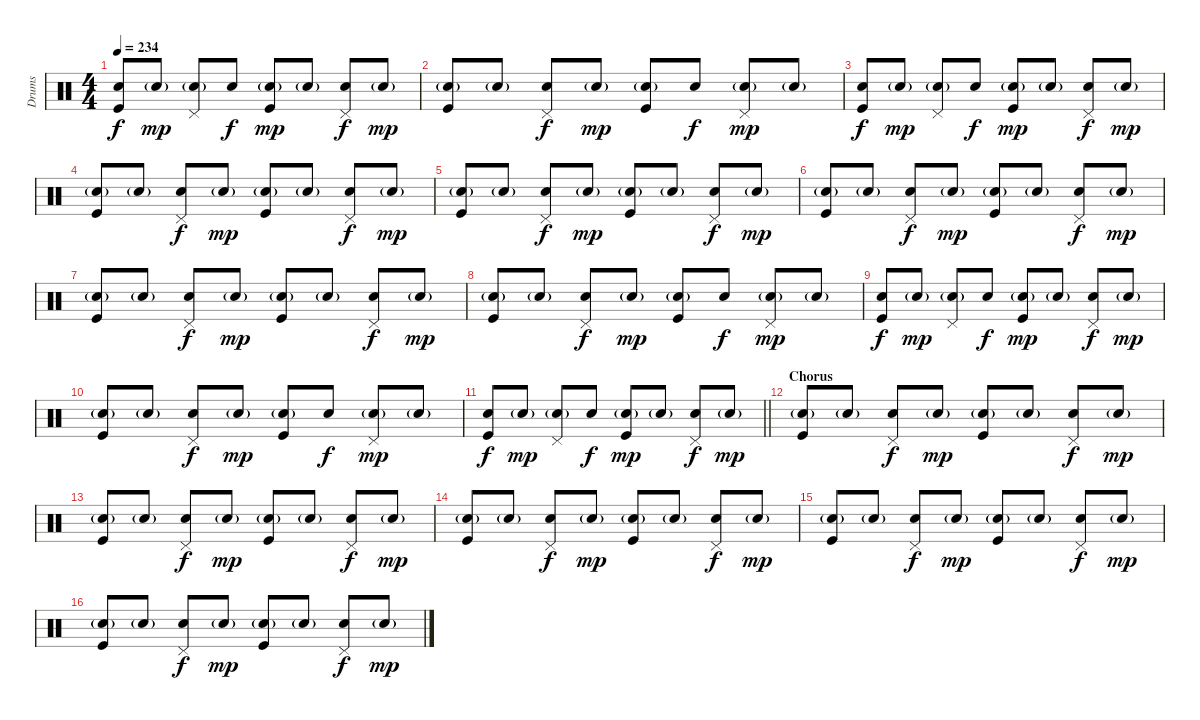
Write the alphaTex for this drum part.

\track ("Drums" "Drums") {instrument percussion}
\staff {score}
\articulation defaults
\ts (4 4)
\tempo 234
\clef neutral
\ks c
("Snare (hit) 2" "Kick (hit)").8{dy f} "Snare (hit) 2"{g}.8{dy mp} ("Snare (hit) 2"{g} "Pedal Hi-Hat (hit)").8 "Snare (hit) 2".8{dy f} ("Snare (hit) 2"{g} "Kick (hit)").8{dy mp} "Snare (hit) 2"{g}.8 ("Snare (hit) 2" "Pedal Hi-Hat (hit)").8{dy f} "Snare (hit) 2"{g}.8{dy mp} |
("Snare (hit) 2"{g} "Kick (hit)").8 "Snare (hit) 2"{g}.8 ("Snare (hit) 2" "Pedal Hi-Hat (hit)").8{dy f} "Snare (hit) 2"{g}.8{dy mp} ("Snare (hit) 2"{g} "Kick (hit)").8 "Snare (hit) 2".8{dy f} ("Snare (hit) 2"{g} "Pedal Hi-Hat (hit)").8{dy mp} "Snare (hit) 2"{g}.8 |
("Snare (hit) 2" "Kick (hit)").8{dy f} "Snare (hit) 2"{g}.8{dy mp} ("Snare (hit) 2"{g} "Pedal Hi-Hat (hit)").8 "Snare (hit) 2".8{dy f} ("Snare (hit) 2"{g} "Kick (hit)").8{dy mp} "Snare (hit) 2"{g}.8 ("Snare (hit) 2" "Pedal Hi-Hat (hit)").8{dy f} "Snare (hit) 2"{g}.8{dy mp} |
("Snare (hit) 2"{g} "Kick (hit)").8 "Snare (hit) 2"{g}.8 ("Snare (hit) 2" "Pedal Hi-Hat (hit)").8{dy f} "Snare (hit) 2"{g}.8{dy mp} ("Snare (hit) 2"{g} "Kick (hit)").8 "Snare (hit) 2"{g}.8 ("Snare (hit) 2" "Pedal Hi-Hat (hit)").8{dy f} "Snare (hit) 2"{g}.8{dy mp} |
("Snare (hit) 2"{g} "Kick (hit)").8 "Snare (hit) 2"{g}.8 ("Snare (hit) 2" "Pedal Hi-Hat (hit)").8{dy f} "Snare (hit) 2"{g}.8{dy mp} ("Snare (hit) 2"{g} "Kick (hit)").8 "Snare (hit) 2"{g}.8 ("Snare (hit) 2" "Pedal Hi-Hat (hit)").8{dy f} "Snare (hit) 2"{g}.8{dy mp} |
("Snare (hit) 2"{g} "Kick (hit)").8 "Snare (hit) 2"{g}.8 ("Snare (hit) 2" "Pedal Hi-Hat (hit)").8{dy f} "Snare (hit) 2"{g}.8{dy mp} ("Snare (hit) 2"{g} "Kick (hit)").8 "Snare (hit) 2"{g}.8 ("Snare (hit) 2" "Pedal Hi-Hat (hit)").8{dy f} "Snare (hit) 2"{g}.8{dy mp} |
("Snare (hit) 2"{g} "Kick (hit)").8 "Snare (hit) 2"{g}.8 ("Snare (hit) 2" "Pedal Hi-Hat (hit)").8{dy f} "Snare (hit) 2"{g}.8{dy mp} ("Snare (hit) 2"{g} "Kick (hit)").8 "Snare (hit) 2"{g}.8 ("Snare (hit) 2" "Pedal Hi-Hat (hit)").8{dy f} "Snare (hit) 2"{g}.8{dy mp} |
("Snare (hit) 2"{g} "Kick (hit)").8 "Snare (hit) 2"{g}.8 ("Snare (hit) 2" "Pedal Hi-Hat (hit)").8{dy f} "Snare (hit) 2"{g}.8{dy mp} ("Snare (hit) 2"{g} "Kick (hit)").8 "Snare (hit) 2".8{dy f} ("Snare (hit) 2"{g} "Pedal Hi-Hat (hit)").8{dy mp} "Snare (hit) 2"{g}.8 |
("Snare (hit) 2" "Kick (hit)").8{dy f} "Snare (hit) 2"{g}.8{dy mp} ("Snare (hit) 2"{g} "Pedal Hi-Hat (hit)").8 "Snare (hit) 2".8{dy f} ("Snare (hit) 2"{g} "Kick (hit)").8{dy mp} "Snare (hit) 2"{g}.8 ("Snare (hit) 2" "Pedal Hi-Hat (hit)").8{dy f} "Snare (hit) 2"{g}.8{dy mp} |
("Snare (hit) 2"{g} "Kick (hit)").8 "Snare (hit) 2"{g}.8 ("Snare (hit) 2" "Pedal Hi-Hat (hit)").8{dy f} "Snare (hit) 2"{g}.8{dy mp} ("Snare (hit) 2"{g} "Kick (hit)").8 "Snare (hit) 2".8{dy f} ("Snare (hit) 2"{g} "Pedal Hi-Hat (hit)").8{dy mp} "Snare (hit) 2"{g}.8 |
\barLineRight lightlight
("Snare (hit) 2" "Kick (hit)").8{dy f} "Snare (hit) 2"{g}.8{dy mp} ("Snare (hit) 2"{g} "Pedal Hi-Hat (hit)").8 "Snare (hit) 2".8{dy f} ("Snare (hit) 2"{g} "Kick (hit)").8{dy mp} "Snare (hit) 2"{g}.8 ("Snare (hit) 2" "Pedal Hi-Hat (hit)").8{dy f} "Snare (hit) 2"{g}.8{dy mp} |
\section ("" "Chorus")
("Snare (hit) 2"{g} "Kick (hit)").8 "Snare (hit) 2"{g}.8 ("Snare (hit) 2" "Pedal Hi-Hat (hit)").8{dy f} "Snare (hit) 2"{g}.8{dy mp} ("Snare (hit) 2"{g} "Kick (hit)").8 "Snare (hit) 2"{g}.8 ("Snare (hit) 2" "Pedal Hi-Hat (hit)").8{dy f} "Snare (hit) 2"{g}.8{dy mp} |
("Snare (hit) 2"{g} "Kick (hit)").8 "Snare (hit) 2"{g}.8 ("Snare (hit) 2" "Pedal Hi-Hat (hit)").8{dy f} "Snare (hit) 2"{g}.8{dy mp} ("Snare (hit) 2"{g} "Kick (hit)").8 "Snare (hit) 2"{g}.8 ("Snare (hit) 2" "Pedal Hi-Hat (hit)").8{dy f} "Snare (hit) 2"{g}.8{dy mp} |
("Snare (hit) 2"{g} "Kick (hit)").8 "Snare (hit) 2"{g}.8 ("Snare (hit) 2" "Pedal Hi-Hat (hit)").8{dy f} "Snare (hit) 2"{g}.8{dy mp} ("Snare (hit) 2"{g} "Kick (hit)").8 "Snare (hit) 2"{g}.8 ("Snare (hit) 2" "Pedal Hi-Hat (hit)").8{dy f} "Snare (hit) 2"{g}.8{dy mp} |
("Snare (hit) 2"{g} "Kick (hit)").8 "Snare (hit) 2"{g}.8 ("Snare (hit) 2" "Pedal Hi-Hat (hit)").8{dy f} "Snare (hit) 2"{g}.8{dy mp} ("Snare (hit) 2"{g} "Kick (hit)").8 "Snare (hit) 2"{g}.8 ("Snare (hit) 2" "Pedal Hi-Hat (hit)").8{dy f} "Snare (hit) 2"{g}.8{dy mp} |
("Snare (hit) 2"{g} "Kick (hit)").8 "Snare (hit) 2"{g}.8 ("Snare (hit) 2" "Pedal Hi-Hat (hit)").8{dy f} "Snare (hit) 2"{g}.8{dy mp} ("Snare (hit) 2"{g} "Kick (hit)").8 "Snare (hit) 2"{g}.8 ("Snare (hit) 2" "Pedal Hi-Hat (hit)").8{dy f} "Snare (hit) 2"{g}.8{dy mp}
